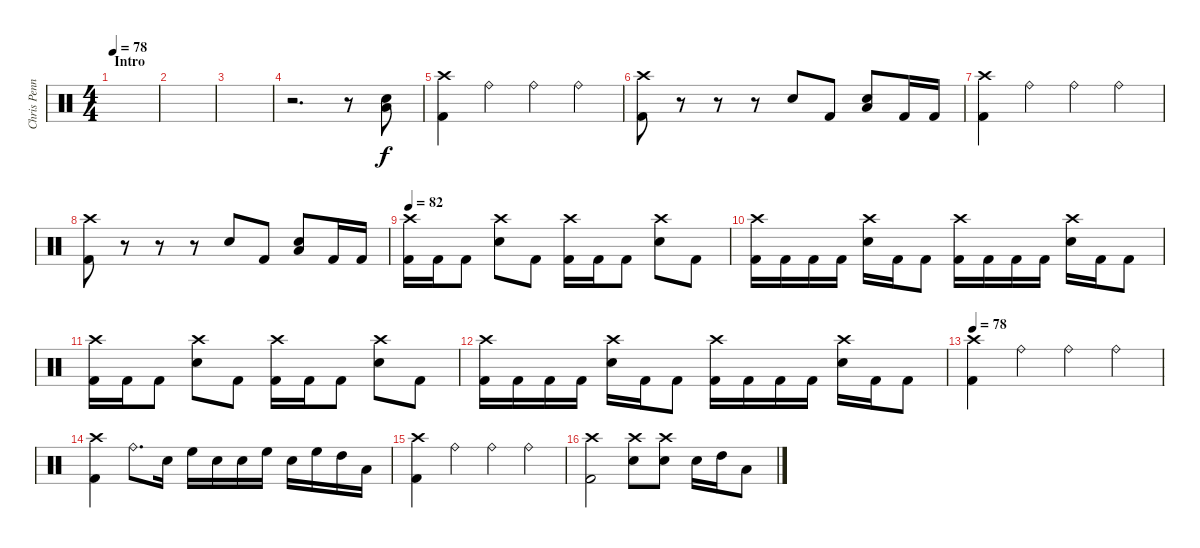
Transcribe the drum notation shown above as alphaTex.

\track ("Chris Pennie" "Chris Penn") {instrument percussion}
\staff {score}
\articulation defaults
\ts (4 4)
\section ("" "Intro")
\tempo 78
\clef neutral
\ks c
|
|
|
r.2{d} r.8 ("Electric Snare (hit)" "Low Floor Tom (hit)").8 |
("Crash high (hit)" "Kick (hit) 2").4 "Ride (bell)".4 "Ride (bell)".4 "Ride (bell)".4 |
("Crash high (hit)" "Kick (hit) 2").8 r.8 r.8 r.8 "Electric Snare (hit)".8 "Kick (hit) 2".8 ("Electric Snare (hit)" "Low Floor Tom (hit)").8 "Kick (hit) 2".16 "Kick (hit) 2".16 |
("Crash high (hit)" "Kick (hit) 2").4 "Ride (bell)".4 "Ride (bell)".4 "Ride (bell)".4 |
("Crash high (hit)" "Kick (hit) 2").8 r.8 r.8 r.8 "Electric Snare (hit)".8 "Kick (hit) 2".8 ("Electric Snare (hit)" "Low Floor Tom (hit)").8 "Kick (hit) 2".16 "Kick (hit) 2".16 |
\tempo 82
("Crash high (hit)" "Kick (hit) 2").16 "Kick (hit) 2".16 "Kick (hit) 2".8 ("Crash high (hit)" "Electric Snare (hit)").8 "Kick (hit) 2".8 ("Crash high (hit)" "Kick (hit) 2").16 "Kick (hit) 2".16 "Kick (hit) 2".8 ("Crash high (hit)" "Electric Snare (hit)").8 "Kick (hit) 2".8 |
("Crash high (hit)" "Kick (hit) 2").16 "Kick (hit) 2".16 "Kick (hit) 2".16 "Kick (hit) 2".16 ("Crash high (hit)" "Electric Snare (hit)").16 "Kick (hit) 2".16 "Kick (hit) 2".8 ("Crash high (hit)" "Kick (hit) 2").16 "Kick (hit) 2".16 "Kick (hit) 2".16 "Kick (hit) 2".16 ("Crash high (hit)" "Electric Snare (hit)").16 "Kick (hit) 2".16 "Kick (hit) 2".8 |
("Crash high (hit)" "Kick (hit) 2").16 "Kick (hit) 2".16 "Kick (hit) 2".8 ("Crash high (hit)" "Electric Snare (hit)").8 "Kick (hit) 2".8 ("Crash high (hit)" "Kick (hit) 2").16 "Kick (hit) 2".16 "Kick (hit) 2".8 ("Crash high (hit)" "Electric Snare (hit)").8 "Kick (hit) 2".8 |
("Crash high (hit)" "Kick (hit) 2").16 "Kick (hit) 2".16 "Kick (hit) 2".16 "Kick (hit) 2".16 ("Crash high (hit)" "Electric Snare (hit)").16 "Kick (hit) 2".16 "Kick (hit) 2".8 ("Crash high (hit)" "Kick (hit) 2").16 "Kick (hit) 2".16 "Kick (hit) 2".16 "Kick (hit) 2".16 ("Crash high (hit)" "Electric Snare (hit)").16 "Kick (hit) 2".16 "Kick (hit) 2".8 |
\tempo 78
("Crash high (hit)" "Kick (hit) 2").4 "Ride (bell)".4 "Ride (bell)".4 "Ride (bell)".4 |
("Crash high (hit)" "Kick (hit) 2").4 "Ride (bell)".8{d} "Electric Snare (hit)".16 "High Floor Tom (hit)".16 "Electric Snare (hit)".16 "Electric Snare (hit)".16 "High Floor Tom (hit)".16 "Electric Snare (hit)".16 "High Floor Tom (hit)".16 "High Tom (hit)".16 "Low Floor Tom (hit)".16 |
("Crash high (hit)" "Kick (hit) 2").4 "Ride (bell)".4 "Ride (bell)".4 "Ride (bell)".4 |
("Crash high (hit)" "Kick (hit) 2").2 ("Crash high (hit)" "Electric Snare (hit)").8 ("Crash high (hit)" "Electric Snare (hit)").8 "Electric Snare (hit)".16 "High Tom (hit)".16 "Low Floor Tom (hit)".8
